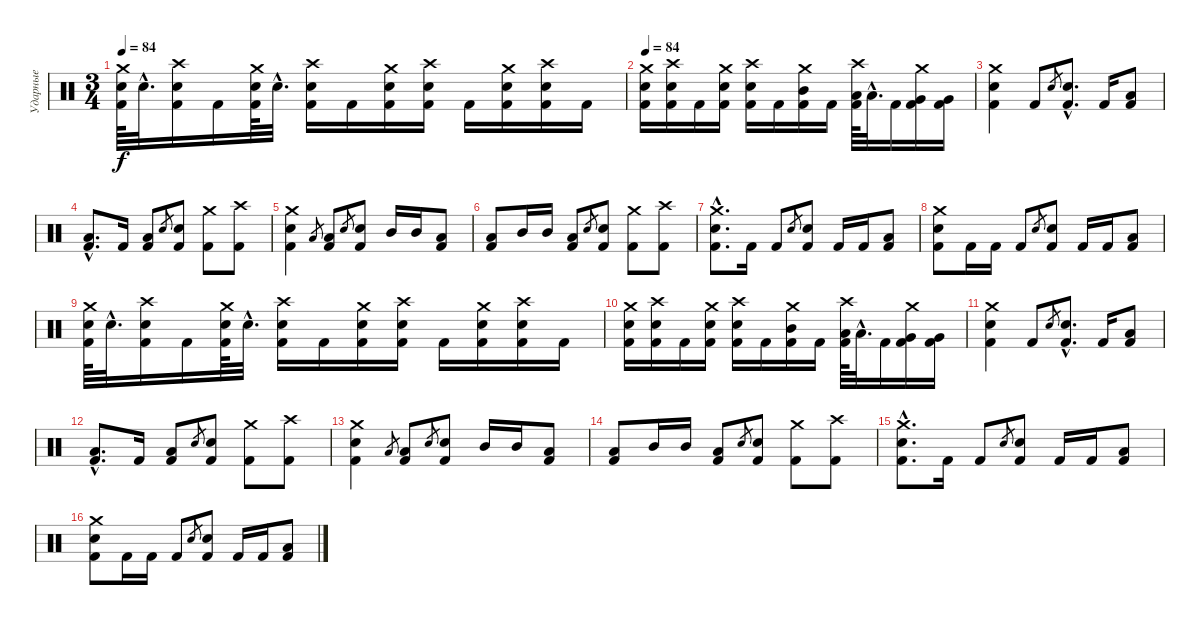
\track ("Ударные" "Ударные") {instrument percussion}
\staff {score}
\articulation defaults
\ts (3 4)
\tempo 84
\clef neutral
\ks c
("Crash medium (hit)" "Snare (hit) 2" "Kick (hit) 2").64{dy f} "Snare (hit) 2"{hac}.32{d} ("Crash high (hit)" "Snare (hit) 2" "Kick (hit) 2").16 "Kick (hit) 2".16 ("Crash medium (hit)" "Snare (hit) 2" "Kick (hit) 2").64 "Snare (hit) 2"{hac}.32{d} ("Crash high (hit)" "Snare (hit) 2" "Kick (hit) 2").16 "Kick (hit) 2".16 ("Crash medium (hit)" "Snare (hit) 2" "Kick (hit) 2").16 ("Crash high (hit)" "Snare (hit) 2" "Kick (hit) 2").16 "Kick (hit) 2".16 ("Crash medium (hit)" "Snare (hit) 2" "Kick (hit) 2").16 ("Crash high (hit)" "Snare (hit) 2" "Kick (hit) 2").16 "Kick (hit) 2".16 |
\tempo 84
("Crash medium (hit)" "Snare (hit) 2" "Kick (hit) 2").16 ("Crash high (hit)" "Snare (hit) 2" "Kick (hit) 2").16 "Kick (hit) 2".16 ("Crash medium (hit)" "Snare (hit) 2" "Kick (hit) 2").16 ("Crash high (hit)" "Snare (hit) 2" "Kick (hit) 2").16 "Kick (hit) 2".16 ("Crash medium (hit)" "Mid Tom (hit)" "Kick (hit) 2").16 "Kick (hit) 2".16 ("Crash high (hit)" "Low Tom (hit)" "Kick (hit) 2").64 "Low Tom (hit)"{hac}.32{d} "Kick (hit) 2".16 ("Crash medium (hit)" "Very Low Tom (hit)" "Kick (hit) 2").16 ("Very Low Tom (hit)" "Kick (hit) 2").16 |
("Crash medium (hit)" "Snare (hit) 2" "Kick (hit) 2").4 "Kick (hit) 2".8 "Snare (hit) 2".8{gr} ("Snare (hit) 2"{hac} "Kick (hit) 2"{hac}).8{d} "Kick (hit) 2".16 ("Low Tom (hit)" "Kick (hit) 2").8 |
("Low Tom (hit)"{hac} "Kick (hit) 2"{hac}).8{d} "Kick (hit) 2".16 ("Low Tom (hit)" "Kick (hit) 2").8 "Snare (hit) 2".8{gr} ("Snare (hit) 2" "Kick (hit) 2").8 ("Crash medium (hit)" "Kick (hit) 2").8 ("Crash high (hit)" "Kick (hit) 2").8 |
("Crash medium (hit)" "Snare (hit) 2" "Kick (hit) 2").4 "Low Tom (hit)".8{gr} ("Low Tom (hit)" "Kick (hit) 2").8 "Snare (hit) 2".8{gr} ("Snare (hit) 2" "Kick (hit) 2").8 "Mid Tom (hit)".16 "Mid Tom (hit)".16 ("Low Tom (hit)" "Kick (hit) 2").8 |
("Low Tom (hit)" "Kick (hit) 2").8 "Mid Tom (hit)".16 "Mid Tom (hit)".16 ("Low Tom (hit)" "Kick (hit) 2").8 "Snare (hit) 2".8{gr} ("Snare (hit) 2" "Kick (hit) 2").8 ("Crash medium (hit)" "Kick (hit) 2").8 ("Crash high (hit)" "Kick (hit) 2").8 |
("Crash medium (hit)"{hac} "Snare (hit) 2"{hac} "Kick (hit) 2"{hac}).8{d} "Kick (hit) 2".16 "Kick (hit) 2".8 "Snare (hit) 2".8{gr} ("Snare (hit) 2" "Kick (hit) 2").8 "Kick (hit) 2".16 "Kick (hit) 2".16 ("Low Tom (hit)" "Kick (hit) 2").8 |
("Crash medium (hit)" "Snare (hit) 2" "Kick (hit) 2").8 "Kick (hit) 2".16 "Kick (hit) 2".16 "Kick (hit) 2".8 "Snare (hit) 2".8{gr} ("Snare (hit) 2" "Kick (hit) 2").8 "Kick (hit) 2".16 "Kick (hit) 2".16 ("Low Tom (hit)" "Kick (hit) 2").8 |
("Crash medium (hit)" "Snare (hit) 2" "Kick (hit) 2").64 "Snare (hit) 2"{hac}.32{d} ("Crash high (hit)" "Snare (hit) 2" "Kick (hit) 2").16 "Kick (hit) 2".16 ("Crash medium (hit)" "Snare (hit) 2" "Kick (hit) 2").64 "Snare (hit) 2"{hac}.32{d} ("Crash high (hit)" "Snare (hit) 2" "Kick (hit) 2").16 "Kick (hit) 2".16 ("Crash medium (hit)" "Snare (hit) 2" "Kick (hit) 2").16 ("Crash high (hit)" "Snare (hit) 2" "Kick (hit) 2").16 "Kick (hit) 2".16 ("Crash medium (hit)" "Snare (hit) 2" "Kick (hit) 2").16 ("Crash high (hit)" "Snare (hit) 2" "Kick (hit) 2").16 "Kick (hit) 2".16 |
("Crash medium (hit)" "Snare (hit) 2" "Kick (hit) 2").16 ("Crash high (hit)" "Snare (hit) 2" "Kick (hit) 2").16 "Kick (hit) 2".16 ("Crash medium (hit)" "Snare (hit) 2" "Kick (hit) 2").16 ("Crash high (hit)" "Snare (hit) 2" "Kick (hit) 2").16 "Kick (hit) 2".16 ("Crash medium (hit)" "Mid Tom (hit)" "Kick (hit) 2").16 "Kick (hit) 2".16 ("Crash high (hit)" "Low Tom (hit)" "Kick (hit) 2").64 "Low Tom (hit)"{hac}.32{d} "Kick (hit) 2".16 ("Crash medium (hit)" "Very Low Tom (hit)" "Kick (hit) 2").16 ("Very Low Tom (hit)" "Kick (hit) 2").16 |
("Crash medium (hit)" "Snare (hit) 2" "Kick (hit) 2").4 "Kick (hit) 2".8 "Snare (hit) 2".8{gr} ("Snare (hit) 2"{hac} "Kick (hit) 2"{hac}).8{d} "Kick (hit) 2".16 ("Low Tom (hit)" "Kick (hit) 2").8 |
("Low Tom (hit)"{hac} "Kick (hit) 2"{hac}).8{d} "Kick (hit) 2".16 ("Low Tom (hit)" "Kick (hit) 2").8 "Snare (hit) 2".8{gr} ("Snare (hit) 2" "Kick (hit) 2").8 ("Crash medium (hit)" "Kick (hit) 2").8 ("Crash high (hit)" "Kick (hit) 2").8 |
("Crash medium (hit)" "Snare (hit) 2" "Kick (hit) 2").4 "Low Tom (hit)".8{gr} ("Low Tom (hit)" "Kick (hit) 2").8 "Snare (hit) 2".8{gr} ("Snare (hit) 2" "Kick (hit) 2").8 "Mid Tom (hit)".16 "Mid Tom (hit)".16 ("Low Tom (hit)" "Kick (hit) 2").8 |
("Low Tom (hit)" "Kick (hit) 2").8 "Mid Tom (hit)".16 "Mid Tom (hit)".16 ("Low Tom (hit)" "Kick (hit) 2").8 "Snare (hit) 2".8{gr} ("Snare (hit) 2" "Kick (hit) 2").8 ("Crash medium (hit)" "Kick (hit) 2").8 ("Crash high (hit)" "Kick (hit) 2").8 |
("Crash medium (hit)"{hac} "Snare (hit) 2"{hac} "Kick (hit) 2"{hac}).8{d} "Kick (hit) 2".16 "Kick (hit) 2".8 "Snare (hit) 2".8{gr} ("Snare (hit) 2" "Kick (hit) 2").8 "Kick (hit) 2".16 "Kick (hit) 2".16 ("Low Tom (hit)" "Kick (hit) 2").8 |
("Crash medium (hit)" "Snare (hit) 2" "Kick (hit) 2").8 "Kick (hit) 2".16 "Kick (hit) 2".16 "Kick (hit) 2".8 "Snare (hit) 2".8{gr} ("Snare (hit) 2" "Kick (hit) 2").8 "Kick (hit) 2".16 "Kick (hit) 2".16 ("Low Tom (hit)" "Kick (hit) 2").8
